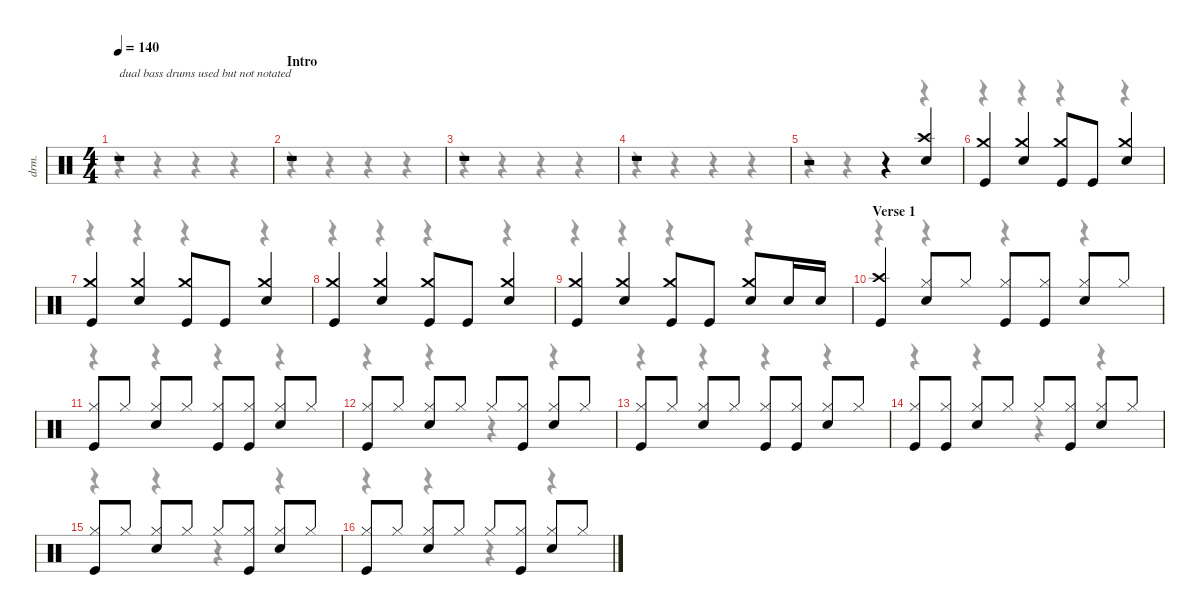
\defaultSystemsLayout 4
\hideDynamics
\bracketExtendMode nobrackets
\otherSystemsTrackNameOrientation horizontal
\track ("Alex Van Halen (Drums)" "drm.") {instrument percussion}
\staff {score}
\articulation defaults
\voice
\ts (4 4)
\beaming (8 2 2 2 2)
\tempo 140
\clef neutral
\ks c
r.1{txt "dual bass drums used but not notated" dy f beam Up} |
\section ("" "Intro")
r.1{beam Up} |
r.1{beam Up} |
r.1{beam Up} |
r.2{beam Up} r.4{beam Up} ("Crash high (hit)" "Snare (hit) 2").4{beam Up} |
("Crash medium (hit)" "Kick (hit)").4{dy mf beam Up} ("Crash medium (hit)" "Snare (hit) 2").4{beam Up} ("Crash medium (hit)" "Kick (hit)").8{beam Up} "Kick (hit)".8{dy f beam Up} ("Crash medium (hit)" "Snare (hit) 2").4{dy mf beam Up} |
("Crash medium (hit)" "Kick (hit)").4{beam Up} ("Crash medium (hit)" "Snare (hit) 2").4{beam Up} ("Crash medium (hit)" "Kick (hit)").8{beam Up} "Kick (hit)".8{dy f beam Up} ("Crash medium (hit)" "Snare (hit) 2").4{dy mf beam Up} |
("Crash medium (hit)" "Kick (hit)").4{beam Up} ("Crash medium (hit)" "Snare (hit) 2").4{beam Up} ("Crash medium (hit)" "Kick (hit)").8{beam Up} "Kick (hit)".8{dy f beam Up} ("Crash medium (hit)" "Snare (hit) 2").4{dy mf beam Up} |
("Crash medium (hit)" "Kick (hit)").4{beam Up} ("Crash medium (hit)" "Snare (hit) 2").4{beam Up} ("Crash medium (hit)" "Kick (hit)").8{beam Up} "Kick (hit)".8{dy f beam Up} ("Crash medium (hit)" "Snare (hit) 2").8{dy mf beam Up} "Snare (hit) 2".16{dy f beam Up} "Snare (hit) 2".16{beam Up} |
\section ("" "Verse 1")
("Crash high (hit)" "Kick (hit)").4{beam Up} ("Hi-Hat (closed)" "Snare (hit) 2").8{beam Up} "Hi-Hat (closed)".8{beam Up} ("Hi-Hat (closed)" "Kick (hit)").8{beam Up} ("Hi-Hat (closed)" "Kick (hit)").8{beam Up} ("Hi-Hat (closed)" "Snare (hit) 2").8{beam Up} "Hi-Hat (closed)".8{beam Up} |
("Hi-Hat (closed)" "Kick (hit)").8{beam Up} "Hi-Hat (closed)".8{beam Up} ("Hi-Hat (closed)" "Snare (hit) 2").8{beam Up} "Hi-Hat (closed)".8{beam Up} ("Hi-Hat (closed)" "Kick (hit)").8{beam Up} ("Hi-Hat (closed)" "Kick (hit)").8{beam Up} ("Hi-Hat (closed)" "Snare (hit) 2").8{beam Up} "Hi-Hat (closed)".8{beam Up} |
("Hi-Hat (closed)" "Kick (hit)").8{beam Up} "Hi-Hat (closed)".8{beam Up} ("Hi-Hat (closed)" "Snare (hit) 2").8{beam Up} "Hi-Hat (closed)".8{beam Up} "Hi-Hat (closed)".8{beam Up} ("Hi-Hat (closed)" "Kick (hit)").8{beam Up} ("Hi-Hat (closed)" "Snare (hit) 2").8{beam Up} "Hi-Hat (closed)".8{beam Up} |
("Hi-Hat (closed)" "Kick (hit)").8{beam Up} "Hi-Hat (closed)".8{beam Up} ("Hi-Hat (closed)" "Snare (hit) 2").8{beam Up} "Hi-Hat (closed)".8{beam Up} ("Hi-Hat (closed)" "Kick (hit)").8{beam Up} ("Hi-Hat (closed)" "Kick (hit)").8{beam Up} ("Hi-Hat (closed)" "Snare (hit) 2").8{beam Up} "Hi-Hat (closed)".8{beam Up} |
("Hi-Hat (closed)" "Kick (hit)").8{beam Up} ("Hi-Hat (closed)" "Kick (hit)").8{beam Up} ("Hi-Hat (closed)" "Snare (hit) 2").8{beam Up} "Hi-Hat (closed)".8{beam Up} "Hi-Hat (closed)".8{beam Up} ("Hi-Hat (closed)" "Kick (hit)").8{beam Up} ("Hi-Hat (closed)" "Snare (hit) 2").8{beam Up} "Hi-Hat (closed)".8{beam Up} |
("Hi-Hat (closed)" "Kick (hit)").8{beam Up} "Hi-Hat (closed)".8{beam Up} ("Hi-Hat (closed)" "Snare (hit) 2").8{beam Up} "Hi-Hat (closed)".8{beam Up} "Hi-Hat (closed)".8{beam Up} ("Hi-Hat (closed)" "Kick (hit)").8{beam Up} ("Hi-Hat (closed)" "Snare (hit) 2").8{beam Up} "Hi-Hat (closed)".8{beam Up} |
("Hi-Hat (closed)" "Kick (hit)").8{beam Up} "Hi-Hat (closed)".8{beam Up} ("Hi-Hat (closed)" "Snare (hit) 2").8{beam Up} "Hi-Hat (closed)".8{beam Up} "Hi-Hat (closed)".8{beam Up} ("Hi-Hat (closed)" "Kick (hit)").8{beam Up} ("Hi-Hat (closed)" "Snare (hit) 2").8{beam Up} "Hi-Hat (closed)".8{beam Up}
\voice
\clef neutral
\ottava regular
\simile none
\ks c
r.4{dy mf beam Down} r.4{beam Down} r.4{beam Down} r.4{beam Down} |
r.4{beam Down} r.4{beam Down} r.4{beam Down} r.4{beam Down} |
r.4{beam Down} r.4{beam Down} r.4{beam Down} r.4{beam Down} |
r.4{beam Down} r.4{beam Down} r.4{beam Down} r.4{beam Down} |
r.4{beam Down} r.4{beam Down} r.4{beam Down} r.4{beam Down} |
r.4{beam Down} r.4{beam Down} r.4{beam Down} r.4{beam Down} |
r.4{beam Down} r.4{beam Down} r.4{beam Down} r.4{beam Down} |
r.4{beam Down} r.4{beam Down} r.4{beam Down} r.4{beam Down} |
r.4{beam Down} r.4{beam Down} r.4{beam Down} r.4{beam Down} |
r.4{beam Down} r.4{beam Down} r.4{beam Down} r.4{beam Down} |
r.4{beam Down} r.4{beam Down} r.4{beam Down} r.4{beam Down} |
r.4{beam Down} r.4{beam Down} r.4{beam Down} r.4{beam Down} |
r.4{beam Down} r.4{beam Down} r.4{beam Down} r.4{beam Down} |
r.4{beam Down} r.4{beam Down} r.4{beam Down} r.4{beam Down} |
r.4{beam Down} r.4{beam Down} r.4{beam Down} r.4{beam Down} |
r.4{beam Down} r.4{beam Down} r.4{beam Down} r.4{beam Down}
